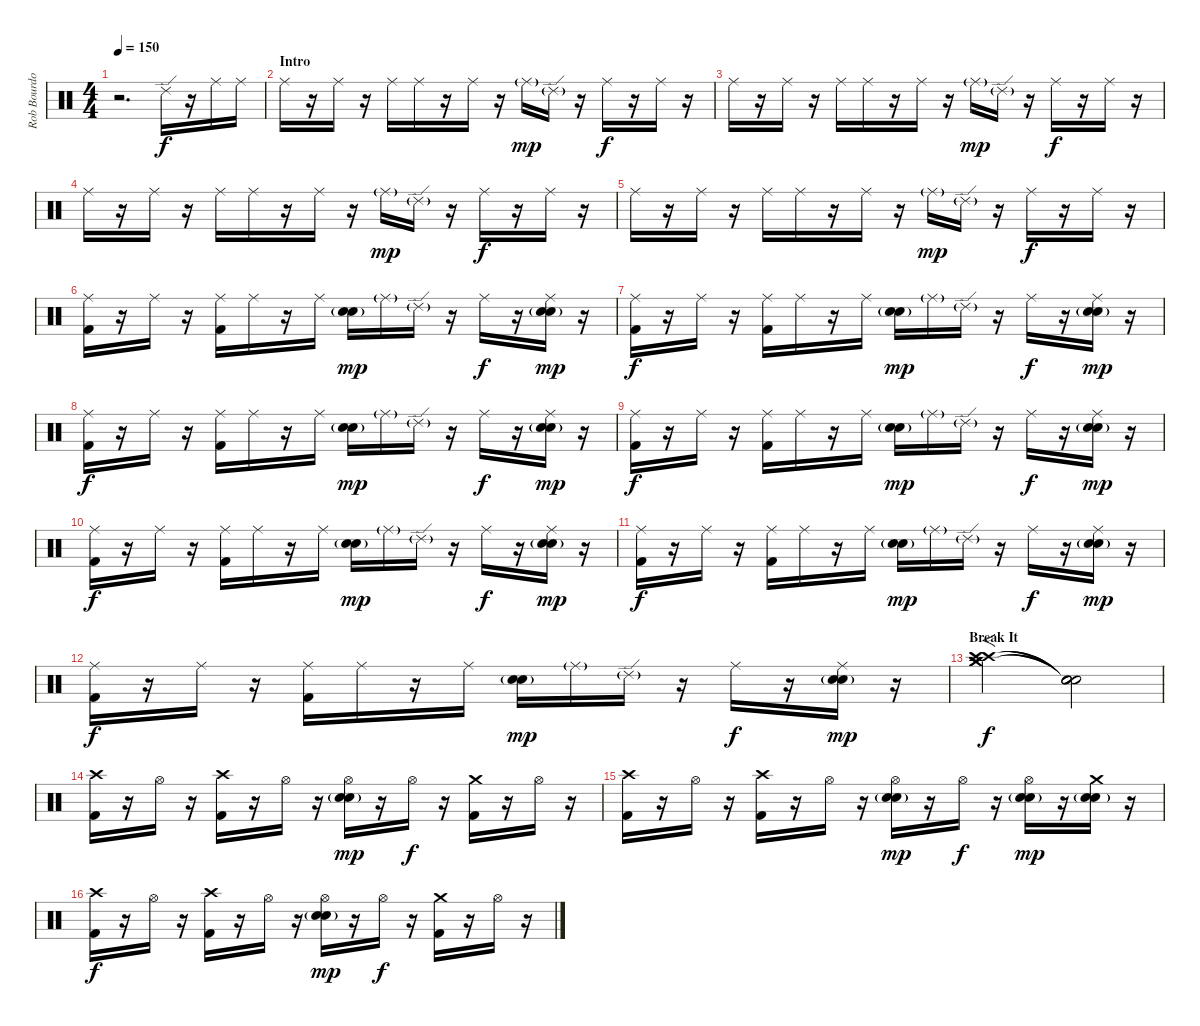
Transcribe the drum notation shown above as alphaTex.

\track ("Rob Bourdon" "Rob Bourdo") {instrument percussion}
\staff {score}
\articulation defaults
\ts (4 4)
\tempo 150
\clef neutral
\ks c
r.2{d dy f} "Ride (edge) 2".16 r.16 "Ride (middle)".16 "Ride (middle)".16 |
\section ("" "Intro")
"Ride (middle)".16 r.16 "Ride (middle)".16 r.16 "Ride (middle)".16 "Ride (middle)".16 r.16 "Ride (middle)".16 r.16 "Ride (middle)"{g}.16{dy mp} "Ride (edge) 2"{g}.16 r.16 "Ride (middle)".16{dy f} r.16 "Ride (middle)".16 r.16 |
"Ride (middle)".16 r.16 "Ride (middle)".16 r.16 "Ride (middle)".16 "Ride (middle)".16 r.16 "Ride (middle)".16 r.16 "Ride (middle)"{g}.16{dy mp} "Ride (edge) 2"{g}.16 r.16 "Ride (middle)".16{dy f} r.16 "Ride (middle)".16 r.16 |
"Ride (middle)".16 r.16 "Ride (middle)".16 r.16 "Ride (middle)".16 "Ride (middle)".16 r.16 "Ride (middle)".16 r.16 "Ride (middle)"{g}.16{dy mp} "Ride (edge) 2"{g}.16 r.16 "Ride (middle)".16{dy f} r.16 "Ride (middle)".16 r.16 |
"Ride (middle)".16 r.16 "Ride (middle)".16 r.16 "Ride (middle)".16 "Ride (middle)".16 r.16 "Ride (middle)".16 r.16 "Ride (middle)"{g}.16{dy mp} "Ride (edge) 2"{g}.16 r.16 "Ride (middle)".16{dy f} r.16 "Ride (middle)".16 r.16 |
("Ride (middle)" "Kick (hit) 2").16 r.16 "Ride (middle)".16 r.16 ("Ride (middle)" "Kick (hit) 2").16 "Ride (middle)".16 r.16 "Ride (middle)".16 ("Snare (hit) 2"{g} "Snare (hit) 2").16{dy mp} "Ride (middle)"{g}.16 "Ride (edge) 2"{g}.16 r.16 "Ride (middle)".16{dy f} r.16 ("Ride (middle)" "Snare (hit) 2"{g} "Snare (hit) 2").16{dy mp} r.16 |
("Ride (middle)" "Kick (hit) 2").16{dy f} r.16 "Ride (middle)".16 r.16 ("Ride (middle)" "Kick (hit) 2").16 "Ride (middle)".16 r.16 "Ride (middle)".16 ("Snare (hit) 2"{g} "Snare (hit) 2").16{dy mp} "Ride (middle)"{g}.16 "Ride (edge) 2"{g}.16 r.16 "Ride (middle)".16{dy f} r.16 ("Ride (middle)" "Snare (hit) 2"{g} "Snare (hit) 2").16{dy mp} r.16 |
("Ride (middle)" "Kick (hit) 2").16{dy f} r.16 "Ride (middle)".16 r.16 ("Ride (middle)" "Kick (hit) 2").16 "Ride (middle)".16 r.16 "Ride (middle)".16 ("Snare (hit) 2"{g} "Snare (hit) 2").16{dy mp} "Ride (middle)"{g}.16 "Ride (edge) 2"{g}.16 r.16 "Ride (middle)".16{dy f} r.16 ("Ride (middle)" "Snare (hit) 2"{g} "Snare (hit) 2").16{dy mp} r.16 |
("Ride (middle)" "Kick (hit) 2").16{dy f} r.16 "Ride (middle)".16 r.16 ("Ride (middle)" "Kick (hit) 2").16 "Ride (middle)".16 r.16 "Ride (middle)".16 ("Snare (hit) 2"{g} "Snare (hit) 2").16{dy mp} "Ride (middle)"{g}.16 "Ride (edge) 2"{g}.16 r.16 "Ride (middle)".16{dy f} r.16 ("Ride (middle)" "Snare (hit) 2"{g} "Snare (hit) 2").16{dy mp} r.16 |
("Ride (middle)" "Kick (hit) 2").16{dy f} r.16 "Ride (middle)".16 r.16 ("Ride (middle)" "Kick (hit) 2").16 "Ride (middle)".16 r.16 "Ride (middle)".16 ("Snare (hit) 2"{g} "Snare (hit) 2").16{dy mp} "Ride (middle)"{g}.16 "Ride (edge) 2"{g}.16 r.16 "Ride (middle)".16{dy f} r.16 ("Ride (middle)" "Snare (hit) 2"{g} "Snare (hit) 2").16{dy mp} r.16 |
("Ride (middle)" "Kick (hit) 2").16{dy f} r.16 "Ride (middle)".16 r.16 ("Ride (middle)" "Kick (hit) 2").16 "Ride (middle)".16 r.16 "Ride (middle)".16 ("Snare (hit) 2"{g} "Snare (hit) 2").16{dy mp} "Ride (middle)"{g}.16 "Ride (edge) 2"{g}.16 r.16 "Ride (middle)".16{dy f} r.16 ("Ride (middle)" "Snare (hit) 2"{g} "Snare (hit) 2").16{dy mp} r.16 |
("Ride (middle)" "Kick (hit) 2").16{dy f} r.16 "Ride (middle)".16 r.16 ("Ride (middle)" "Kick (hit) 2").16 "Ride (middle)".16 r.16 "Ride (middle)".16 ("Snare (hit) 2"{g} "Snare (hit) 2").16{dy mp} "Ride (middle)"{g}.16 "Ride (edge) 2"{g}.16 r.16 "Ride (middle)".16{dy f} r.16 ("Ride (middle)" "Snare (hit) 2"{g} "Snare (hit) 2").16{dy mp} r.16 |
\section ("" "Break It")
("Crash high (hit)" "Crash medium (hit)" "Crash high (hit)" "Crash medium (hit)").2{f dy f} ("Snare (hit)"{t} "Snare (hit)"{t} "Snare (hit)"{t} "Snare (hit)"{t}).2 |
("Crash high (hit)" "Kick (hit) 2").16 r.16 "Hi-Hat (open)".16 r.16 ("Crash high (hit)" "Kick (hit) 2").16 r.16 "Hi-Hat (open)".16 r.16 ("Hi-Hat (open)" "Snare (hit) 2"{g} "Snare (hit) 2").16{dy mp} r.16 "Hi-Hat (open)".16{dy f} r.16 ("Crash medium (hit)" "Kick (hit) 2").16 r.16 "Hi-Hat (open)".16 r.16 |
("Crash high (hit)" "Kick (hit) 2").16 r.16 "Hi-Hat (open)".16 r.16 ("Crash high (hit)" "Kick (hit) 2").16 r.16 "Hi-Hat (open)".16 r.16 ("Hi-Hat (open)" "Snare (hit) 2"{g} "Snare (hit) 2").16{dy mp} r.16 "Hi-Hat (open)".16{dy f} r.16 ("Hi-Hat (open)" "Snare (hit) 2"{g} "Snare (hit) 2").16{dy mp} r.16 ("Crash medium (hit)" "Snare (hit) 2"{g} "Snare (hit) 2").16 r.16 |
("Crash high (hit)" "Kick (hit) 2").16{dy f} r.16 "Hi-Hat (open)".16 r.16 ("Crash high (hit)" "Kick (hit) 2").16 r.16 "Hi-Hat (open)".16 r.16 ("Hi-Hat (open)" "Snare (hit) 2"{g} "Snare (hit) 2").16{dy mp} r.16 "Hi-Hat (open)".16{dy f} r.16 ("Crash medium (hit)" "Kick (hit) 2").16 r.16 "Hi-Hat (open)".16 r.16
